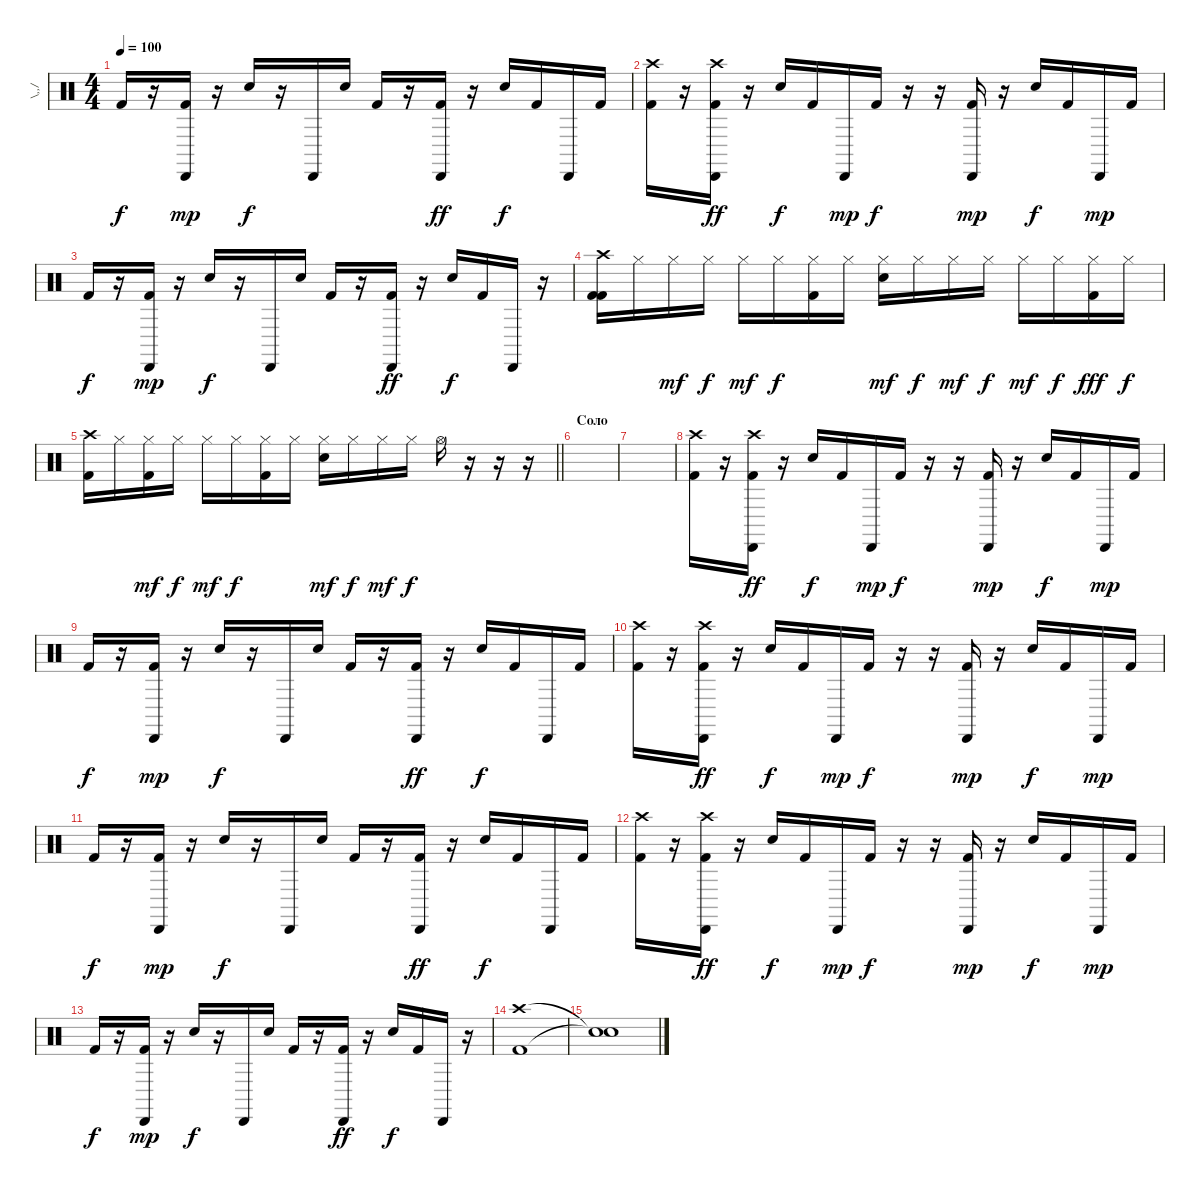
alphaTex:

\track ("\\,,/    " "\\,,/    ") {instrument percussion}
\staff {score}
\articulation defaults
\ts (4 4)
\tempo 100
\clef neutral
\ks c "Kick (hit) 2".16{dy f}
r.16 ("Cabasa (hit)" "Kick (hit) 2").16{dy mp} r.16 "Electric Snare (hit)".16{dy f} r.16 "Cabasa (hit)".16 "Electric Snare (hit)".16 "Kick (hit) 2".16 r.16 ("Cabasa (hit)" "Kick (hit) 2").16{dy ff} r.16 "Electric Snare (hit)".16{dy f} "Kick (hit) 2".16 "Cabasa (hit)".16 "Kick (hit) 2".16 |
("Crash high (hit)" "Kick (hit) 2").16 r.16 ("Cabasa (hit)" "Crash high (hit)" "Kick (hit) 2").16{dy ff} r.16 "Electric Snare (hit)".16{dy f} "Kick (hit) 2".16 "Cabasa (hit)".16{dy mp} "Kick (hit) 2".16{dy f} r.16 r.16 ("Cabasa (hit)" "Kick (hit) 2").16{dy mp} r.16 "Electric Snare (hit)".16{dy f} "Kick (hit) 2".16 "Cabasa (hit)".16{dy mp} "Kick (hit) 2".16 |
"Kick (hit) 2".16{dy f} r.16 ("Cabasa (hit)" "Kick (hit) 2").16{dy mp} r.16 "Electric Snare (hit)".16{dy f} r.16 "Cabasa (hit)".16 "Electric Snare (hit)".16 "Kick (hit) 2".16 r.16 ("Cabasa (hit)" "Kick (hit) 2").16{dy ff} r.16 "Electric Snare (hit)".16{dy f} "Kick (hit) 2".16 "Cabasa (hit)".16 r.16 |
("Crash high (hit)" "Kick (hit) 2" "Kick (hit) 2").16 "Hi-Hat (closed)".16 "Hi-Hat (closed)".16{dy mf} "Hi-Hat (closed)".16{dy f} "Hi-Hat (closed)".16{dy mf} "Hi-Hat (closed)".16{dy f} ("Hi-Hat (closed)" "Kick (hit) 2").16 "Hi-Hat (closed)".16 ("Hi-Hat (closed)" "Electric Snare (hit)").16{dy mf} "Hi-Hat (closed)".16{dy f} "Hi-Hat (closed)".16{dy mf} "Hi-Hat (closed)".16{dy f} "Hi-Hat (closed)".16{dy mf} "Hi-Hat (closed)".16{dy f} ("Hi-Hat (closed)" "Kick (hit) 2").16{dy fff} "Hi-Hat (closed)".16{dy f} |
\barLineRight lightlight
("Crash high (hit)" "Kick (hit) 2").16 "Hi-Hat (closed)".16 ("Hi-Hat (closed)" "Kick (hit) 2").16{dy mf} "Hi-Hat (closed)".16{dy f} "Hi-Hat (closed)".16{dy mf} "Hi-Hat (closed)".16{dy f} ("Hi-Hat (closed)" "Kick (hit) 2").16 "Hi-Hat (closed)".16 ("Hi-Hat (closed)" "Electric Snare (hit)").16{dy mf} "Hi-Hat (closed)".16{dy f} "Hi-Hat (closed)".16{dy mf} "Hi-Hat (closed)".16{dy f} "Hi-Hat (open)".16 r.16 r.16 r.16 |
\section ("" "Соло")
|
|
("Crash high (hit)" "Kick (hit) 2").16 r.16 ("Cabasa (hit)" "Crash high (hit)" "Kick (hit) 2").16{dy ff} r.16 "Electric Snare (hit)".16{dy f} "Kick (hit) 2".16 "Cabasa (hit)".16{dy mp} "Kick (hit) 2".16{dy f} r.16 r.16 ("Cabasa (hit)" "Kick (hit) 2").16{dy mp} r.16 "Electric Snare (hit)".16{dy f} "Kick (hit) 2".16 "Cabasa (hit)".16{dy mp} "Kick (hit) 2".16 |
"Kick (hit) 2".16{dy f} r.16 ("Cabasa (hit)" "Kick (hit) 2").16{dy mp} r.16 "Electric Snare (hit)".16{dy f} r.16 "Cabasa (hit)".16 "Electric Snare (hit)".16 "Kick (hit) 2".16 r.16 ("Cabasa (hit)" "Kick (hit) 2").16{dy ff} r.16 "Electric Snare (hit)".16{dy f} "Kick (hit) 2".16 "Cabasa (hit)".16 "Kick (hit) 2".16 |
("Crash high (hit)" "Kick (hit) 2").16 r.16 ("Cabasa (hit)" "Crash high (hit)" "Kick (hit) 2").16{dy ff} r.16 "Electric Snare (hit)".16{dy f} "Kick (hit) 2".16 "Cabasa (hit)".16{dy mp} "Kick (hit) 2".16{dy f} r.16 r.16 ("Cabasa (hit)" "Kick (hit) 2").16{dy mp} r.16 "Electric Snare (hit)".16{dy f} "Kick (hit) 2".16 "Cabasa (hit)".16{dy mp} "Kick (hit) 2".16 |
"Kick (hit) 2".16{dy f} r.16 ("Cabasa (hit)" "Kick (hit) 2").16{dy mp} r.16 "Electric Snare (hit)".16{dy f} r.16 "Cabasa (hit)".16 "Electric Snare (hit)".16 "Kick (hit) 2".16 r.16 ("Cabasa (hit)" "Kick (hit) 2").16{dy ff} r.16 "Electric Snare (hit)".16{dy f} "Kick (hit) 2".16 "Cabasa (hit)".16 "Kick (hit) 2".16 |
("Crash high (hit)" "Kick (hit) 2").16 r.16 ("Cabasa (hit)" "Crash high (hit)" "Kick (hit) 2").16{dy ff} r.16 "Electric Snare (hit)".16{dy f} "Kick (hit) 2".16 "Cabasa (hit)".16{dy mp} "Kick (hit) 2".16{dy f} r.16 r.16 ("Cabasa (hit)" "Kick (hit) 2").16{dy mp} r.16 "Electric Snare (hit)".16{dy f} "Kick (hit) 2".16 "Cabasa (hit)".16{dy mp} "Kick (hit) 2".16 |
"Kick (hit) 2".16{dy f} r.16 ("Cabasa (hit)" "Kick (hit) 2").16{dy mp} r.16 "Electric Snare (hit)".16{dy f} r.16 "Cabasa (hit)".16 "Electric Snare (hit)".16 "Kick (hit) 2".16 r.16 ("Cabasa (hit)" "Kick (hit) 2").16{dy ff} r.16 "Electric Snare (hit)".16{dy f} "Kick (hit) 2".16 "Cabasa (hit)".16 r.16 |
("Crash high (hit)" "Kick (hit) 2").1 |
("Snare (hit)"{t} "Snare (hit)"{t}).1
